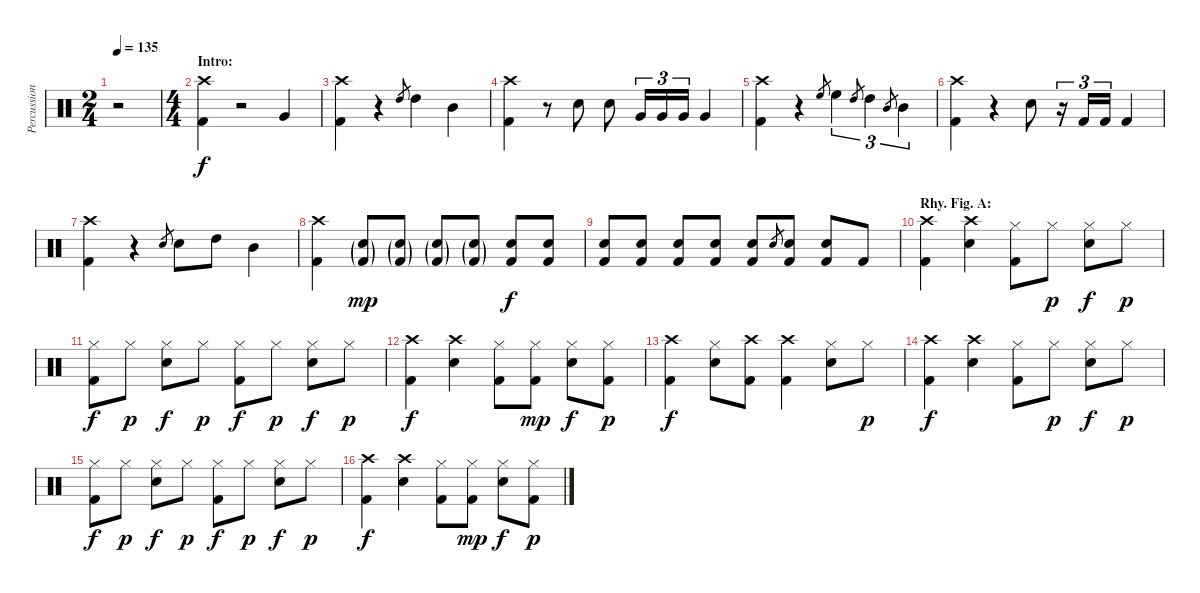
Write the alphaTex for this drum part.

\track ("Percussion" "Percussion") {instrument percussion}
\staff {score}
\articulation defaults
\ts (2 4)
\tempo 135
\clef neutral
\ks c
r.2{dy f} |
\ts (4 4)
\section ("" "Intro:")
("Crash high (hit)" "Kick (hit) 2").4 r.2 "Very Low Tom (hit)".4 |
("Crash high (hit)" "Kick (hit) 2").4 r.4 "High Tom (hit)".8{gr} "High Tom (hit)".4 "Mid Tom (hit)".4 |
("Crash high (hit)" "Kick (hit) 2").4 r.8 "Snare (hit) 2".8 "Snare (hit) 2".8 "Very Low Tom (hit)".16{tu (3 2)} "Very Low Tom (hit)".16{tu (3 2)} "Very Low Tom (hit)".16{tu (3 2)} "Very Low Tom (hit)".4 |
("Crash high (hit)" "Kick (hit) 2").4 r.4 "High Floor Tom (hit)".8{gr} "High Floor Tom (hit)".4{tu (3 2)} "High Tom (hit)".8{gr} "High Tom (hit)".4{tu (3 2)} "Mid Tom (hit)".8{gr} "Mid Tom (hit)".4{tu (3 2)} |
("Crash high (hit)" "Kick (hit) 2").4 r.4 "Snare (hit) 2".8 r.16{tu (3 2)} "Kick (hit) 2".16{tu (3 2)} "Kick (hit) 2".16{tu (3 2)} "Kick (hit) 2".4 |
("Crash high (hit)" "Kick (hit) 2").4 r.4 "Snare (hit) 2".8{gr} "Snare (hit) 2".8 "High Tom (hit)".8 "Mid Tom (hit)".4 |
("Crash high (hit)" "Kick (hit) 2").4 ("Snare (hit) 2"{g} "Kick (hit) 2"{g}).8{dy mp} ("Snare (hit) 2"{g} "Kick (hit) 2"{g}).8 ("Snare (hit) 2"{g} "Kick (hit) 2"{g}).8 ("Snare (hit) 2"{g} "Kick (hit) 2"{g}).8 ("Snare (hit) 2" "Kick (hit) 2").8{dy f} ("Snare (hit) 2" "Kick (hit) 2").8 |
("Snare (hit) 2" "Kick (hit) 2").8 ("Snare (hit) 2" "Kick (hit) 2").8 ("Snare (hit) 2" "Kick (hit) 2").8 ("Snare (hit) 2" "Kick (hit) 2").8 ("Snare (hit) 2" "Kick (hit) 2").8 "Snare (hit) 2".8{gr} ("Snare (hit) 2" "Kick (hit) 2").8 ("Snare (hit) 2" "Kick (hit) 2").8 "Kick (hit) 2".8 |
\section ("" "Rhy. Fig. A:")
("Crash high (hit)" "Kick (hit) 2").4 ("Crash high (hit)" "Snare (hit) 2").4 ("Hi-Hat (closed)" "Kick (hit) 2").8 "Hi-Hat (closed)".8{dy p} ("Hi-Hat (closed)" "Snare (hit) 2").8{dy f} "Hi-Hat (closed)".8{dy p} |
("Hi-Hat (closed)" "Kick (hit) 2").8{dy f} "Hi-Hat (closed)".8{dy p} ("Hi-Hat (closed)" "Snare (hit) 2").8{dy f} "Hi-Hat (closed)".8{dy p} ("Hi-Hat (closed)" "Kick (hit) 2").8{dy f} "Hi-Hat (closed)".8{dy p} ("Hi-Hat (closed)" "Snare (hit) 2").8{dy f} "Hi-Hat (closed)".8{dy p} |
("Crash high (hit)" "Kick (hit) 2").4{dy f} ("Crash high (hit)" "Snare (hit) 2").4 ("Hi-Hat (closed)" "Kick (hit) 2").8 ("Hi-Hat (closed)" "Kick (hit) 2").8{dy mp} ("Hi-Hat (closed)" "Snare (hit) 2").8{dy f} ("Hi-Hat (closed)" "Kick (hit) 2").8{dy p} |
("Crash high (hit)" "Kick (hit) 2").4{dy f} ("Hi-Hat (closed)" "Snare (hit) 2").8 ("Crash high (hit)" "Kick (hit) 2").8 ("Crash high (hit)" "Kick (hit) 2").4 ("Hi-Hat (closed)" "Snare (hit) 2").8 "Hi-Hat (closed)".8{dy p} |
("Crash high (hit)" "Kick (hit) 2").4{dy f} ("Crash high (hit)" "Snare (hit) 2").4 ("Hi-Hat (closed)" "Kick (hit) 2").8 "Hi-Hat (closed)".8{dy p} ("Hi-Hat (closed)" "Snare (hit) 2").8{dy f} "Hi-Hat (closed)".8{dy p} |
("Hi-Hat (closed)" "Kick (hit) 2").8{dy f} "Hi-Hat (closed)".8{dy p} ("Hi-Hat (closed)" "Snare (hit) 2").8{dy f} "Hi-Hat (closed)".8{dy p} ("Hi-Hat (closed)" "Kick (hit) 2").8{dy f} "Hi-Hat (closed)".8{dy p} ("Hi-Hat (closed)" "Snare (hit) 2").8{dy f} "Hi-Hat (closed)".8{dy p} |
("Crash high (hit)" "Kick (hit) 2").4{dy f} ("Crash high (hit)" "Snare (hit) 2").4 ("Hi-Hat (closed)" "Kick (hit) 2").8 ("Hi-Hat (closed)" "Kick (hit) 2").8{dy mp} ("Hi-Hat (closed)" "Snare (hit) 2").8{dy f} ("Hi-Hat (closed)" "Kick (hit) 2").8{dy p}
